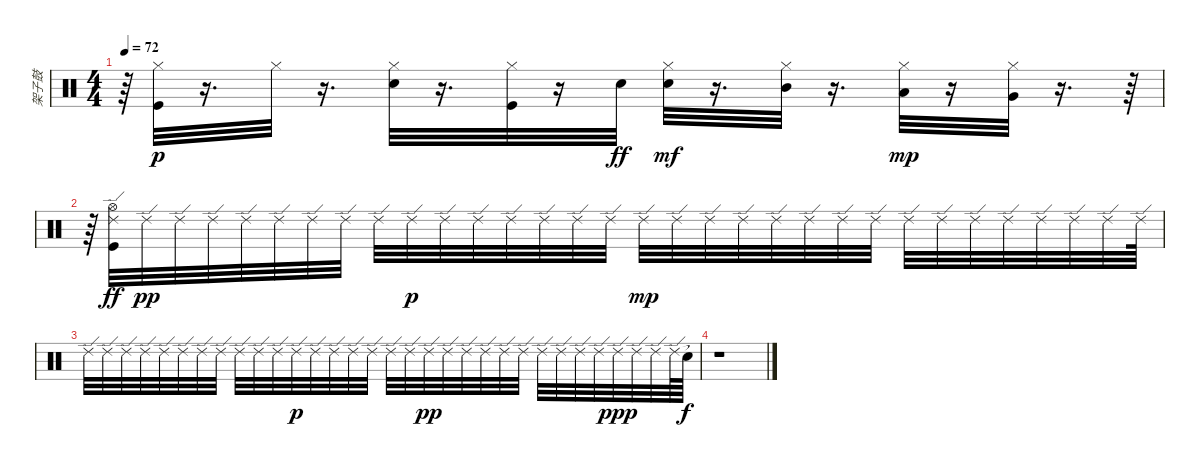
\track ("架子鼓" "架子鼓") {instrument percussion}
\staff {score}
\articulation defaults
\ts (4 4)
\tempo 72
\clef neutral
\ks c
r.64{dy mf} ("Kick (hit)" "Hi-Hat (closed)").32{dy p} r.16{d} "Hi-Hat (closed)".32 r.16{d} ("Snare (hit) 2" "Hi-Hat (closed)").32 r.16{d} ("Kick (hit)" "Hi-Hat (closed)").32 r.16 "Snare (hit) 2".32{dy ff} ("Hi-Hat (closed)" "Snare (hit) 2").32{dy mf} r.16{d} ("Mid Tom (hit)" "Hi-Hat (closed)").32 r.16{d} ("Low Tom (hit)" "Hi-Hat (closed)").32{dy mp} r.16 ("Hi-Hat (closed)" "Very Low Tom (hit)").32 r.16{d} r.64 |
r.64 ("Ride (edge) 2" "Hi-Hat (open)" "Kick (hit)").32{dy ff} "Ride (edge) 2".32{dy pp} "Ride (edge) 2".32 "Ride (edge) 2".32 "Ride (edge) 2".32 "Ride (edge) 2".32 "Ride (edge) 2".32 "Ride (edge) 2".32 "Ride (edge) 2".32 "Ride (edge) 2".32{dy p} "Ride (edge) 2".32 "Ride (edge) 2".32 "Ride (edge) 2".32 "Ride (edge) 2".32 "Ride (edge) 2".32 "Ride (edge) 2".32 "Ride (edge) 2".32{dy mp} "Ride (edge) 2".32 "Ride (edge) 2".32 "Ride (edge) 2".32 "Ride (edge) 2".32 "Ride (edge) 2".32 "Ride (edge) 2".32 "Ride (edge) 2".32 "Ride (edge) 2".32 "Ride (edge) 2".32 "Ride (edge) 2".32 "Ride (edge) 2".32 "Ride (edge) 2".32 "Ride (edge) 2".32 "Ride (edge) 2".32 "Ride (edge) 2".64 |
"Ride (edge) 2".32 "Ride (edge) 2".32 "Ride (edge) 2".32 "Ride (edge) 2".32 "Ride (edge) 2".32 "Ride (edge) 2".32 "Ride (edge) 2".32 "Ride (edge) 2".32 "Ride (edge) 2".32 "Ride (edge) 2".32 "Ride (edge) 2".32 "Ride (edge) 2".32{dy p} "Ride (edge) 2".32 "Ride (edge) 2".32 "Ride (edge) 2".32 "Ride (edge) 2".32 "Ride (edge) 2".32 "Ride (edge) 2".32 "Ride (edge) 2".32{dy pp} "Ride (edge) 2".32 "Ride (edge) 2".32 "Ride (edge) 2".32 "Ride (edge) 2".32 "Ride (edge) 2".32 "Ride (edge) 2".32 "Ride (edge) 2".32 "Ride (edge) 2".32 "Ride (edge) 2".32 "Ride (edge) 2".32{dy ppp} "Ride (edge) 2".32 "Ride (edge) 2".32 "Ride (edge) 2".64 "Snare (hit)"{t}.64{dy f} |
r.1
